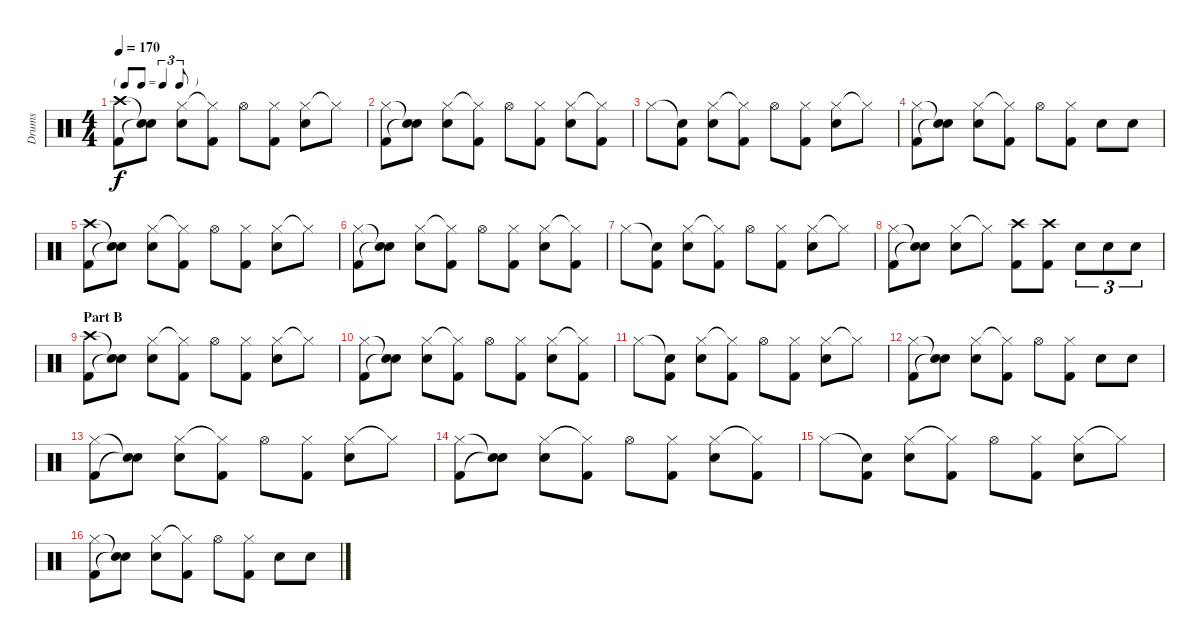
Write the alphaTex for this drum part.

\track ("Drums" "Drums") {instrument percussion}
\staff {score}
\articulation defaults
\ts (4 4)
\tf triplet8th
\tempo 170
\clef neutral
\ks c
("Crash high (hit)" "Kick (hit) 2").8{dy f} ("Snare (hit)"{t} "Snare (hit)"{t}).8 ("Hi-Hat (closed)" "Electric Snare (hit)").8 ("Hi-Hat (closed)"{t} "Kick (hit) 2").8 "Hi-Hat (open)".8 ("Hi-Hat (closed)" "Kick (hit) 2").8 ("Hi-Hat (closed)" "Electric Snare (hit)").8 "Hi-Hat (closed)"{t}.8 |
("Hi-Hat (closed)" "Kick (hit) 2").8 ("Snare (hit)"{t} "Snare (hit)"{t}).8 ("Hi-Hat (closed)" "Electric Snare (hit)").8 ("Hi-Hat (closed)"{t} "Kick (hit) 2").8 "Hi-Hat (open)".8 ("Hi-Hat (closed)" "Kick (hit) 2").8 ("Hi-Hat (closed)" "Electric Snare (hit)").8 ("Hi-Hat (closed)"{t} "Kick (hit) 2").8 |
"Hi-Hat (closed)".8 ("Snare (hit)"{t} "Kick (hit) 2").8 ("Hi-Hat (closed)" "Electric Snare (hit)").8 ("Hi-Hat (closed)"{t} "Kick (hit) 2").8 "Hi-Hat (open)".8 ("Hi-Hat (closed)" "Kick (hit) 2").8 ("Hi-Hat (closed)" "Electric Snare (hit)").8 "Hi-Hat (closed)"{t}.8 |
("Hi-Hat (closed)" "Kick (hit) 2").8 ("Snare (hit)"{t} "Snare (hit)"{t}).8 ("Hi-Hat (closed)" "Electric Snare (hit)").8 ("Hi-Hat (closed)"{t} "Kick (hit) 2").8 "Hi-Hat (open)".8 ("Hi-Hat (closed)" "Kick (hit) 2").8 "Electric Snare (hit)".8 "Electric Snare (hit)".8 |
("Crash high (hit)" "Kick (hit) 2").8 ("Snare (hit)"{t} "Snare (hit)"{t}).8 ("Hi-Hat (closed)" "Electric Snare (hit)").8 ("Hi-Hat (closed)"{t} "Kick (hit) 2").8 "Hi-Hat (open)".8 ("Hi-Hat (closed)" "Kick (hit) 2").8 ("Hi-Hat (closed)" "Electric Snare (hit)").8 "Hi-Hat (closed)"{t}.8 |
("Hi-Hat (closed)" "Kick (hit) 2").8 ("Snare (hit)"{t} "Snare (hit)"{t}).8 ("Hi-Hat (closed)" "Electric Snare (hit)").8 ("Hi-Hat (closed)"{t} "Kick (hit) 2").8 "Hi-Hat (open)".8 ("Hi-Hat (closed)" "Kick (hit) 2").8 ("Hi-Hat (closed)" "Electric Snare (hit)").8 ("Hi-Hat (closed)"{t} "Kick (hit) 2").8 |
"Hi-Hat (closed)".8 ("Snare (hit)"{t} "Kick (hit) 2").8 ("Hi-Hat (closed)" "Electric Snare (hit)").8 ("Hi-Hat (closed)"{t} "Kick (hit) 2").8 "Hi-Hat (open)".8 ("Hi-Hat (closed)" "Kick (hit) 2").8 ("Hi-Hat (closed)" "Electric Snare (hit)").8 "Hi-Hat (closed)"{t}.8 |
("Hi-Hat (closed)" "Kick (hit) 2").8 ("Snare (hit)"{t} "Snare (hit)"{t}).8 ("Hi-Hat (closed)" "Electric Snare (hit)").8 "Hi-Hat (closed)"{t}.8 ("Crash high (hit)" "Kick (hit) 2").8 ("Crash high (hit)" "Kick (hit) 2").8 "Electric Snare (hit)".8{tu (3 2)} "Electric Snare (hit)".8{tu (3 2)} "Electric Snare (hit)".8{tu (3 2)} |
\section ("" "Part B")
("Crash high (hit)" "Kick (hit) 2").8 ("Snare (hit)"{t} "Snare (hit)"{t}).8 ("Hi-Hat (closed)" "Electric Snare (hit)").8 ("Hi-Hat (closed)"{t} "Kick (hit) 2").8 "Hi-Hat (open)".8 ("Hi-Hat (closed)" "Kick (hit) 2").8 ("Hi-Hat (closed)" "Electric Snare (hit)").8 "Hi-Hat (closed)"{t}.8 |
("Hi-Hat (closed)" "Kick (hit) 2").8 ("Snare (hit)"{t} "Snare (hit)"{t}).8 ("Hi-Hat (closed)" "Electric Snare (hit)").8 ("Hi-Hat (closed)"{t} "Kick (hit) 2").8 "Hi-Hat (open)".8 ("Hi-Hat (closed)" "Kick (hit) 2").8 ("Hi-Hat (closed)" "Electric Snare (hit)").8 ("Hi-Hat (closed)"{t} "Kick (hit) 2").8 |
"Hi-Hat (closed)".8 ("Snare (hit)"{t} "Kick (hit) 2").8 ("Hi-Hat (closed)" "Electric Snare (hit)").8 ("Hi-Hat (closed)"{t} "Kick (hit) 2").8 "Hi-Hat (open)".8 ("Hi-Hat (closed)" "Kick (hit) 2").8 ("Hi-Hat (closed)" "Electric Snare (hit)").8 "Hi-Hat (closed)"{t}.8 |
("Hi-Hat (closed)" "Kick (hit) 2").8 ("Snare (hit)"{t} "Snare (hit)"{t}).8 ("Hi-Hat (closed)" "Electric Snare (hit)").8 ("Hi-Hat (closed)"{t} "Kick (hit) 2").8 "Hi-Hat (open)".8 ("Hi-Hat (closed)" "Kick (hit) 2").8 "Electric Snare (hit)".8 "Electric Snare (hit)".8 |
("Hi-Hat (closed)" "Kick (hit) 2").8 ("Snare (hit)"{t} "Snare (hit)"{t}).8 ("Hi-Hat (closed)" "Electric Snare (hit)").8 ("Hi-Hat (closed)"{t} "Kick (hit) 2").8 "Hi-Hat (open)".8 ("Hi-Hat (closed)" "Kick (hit) 2").8 ("Hi-Hat (closed)" "Electric Snare (hit)").8 "Hi-Hat (closed)"{t}.8 |
("Hi-Hat (closed)" "Kick (hit) 2").8 ("Snare (hit)"{t} "Snare (hit)"{t}).8 ("Hi-Hat (closed)" "Electric Snare (hit)").8 ("Hi-Hat (closed)"{t} "Kick (hit) 2").8 "Hi-Hat (open)".8 ("Hi-Hat (closed)" "Kick (hit) 2").8 ("Hi-Hat (closed)" "Electric Snare (hit)").8 ("Hi-Hat (closed)"{t} "Kick (hit) 2").8 |
"Hi-Hat (closed)".8 ("Snare (hit)"{t} "Kick (hit) 2").8 ("Hi-Hat (closed)" "Electric Snare (hit)").8 ("Hi-Hat (closed)"{t} "Kick (hit) 2").8 "Hi-Hat (open)".8 ("Hi-Hat (closed)" "Kick (hit) 2").8 ("Hi-Hat (closed)" "Electric Snare (hit)").8 "Hi-Hat (closed)"{t}.8 |
("Hi-Hat (closed)" "Kick (hit) 2").8 ("Snare (hit)"{t} "Snare (hit)"{t}).8 ("Hi-Hat (closed)" "Electric Snare (hit)").8 ("Hi-Hat (closed)"{t} "Kick (hit) 2").8 "Hi-Hat (open)".8 ("Hi-Hat (closed)" "Kick (hit) 2").8 "Electric Snare (hit)".8 "Electric Snare (hit)".8
